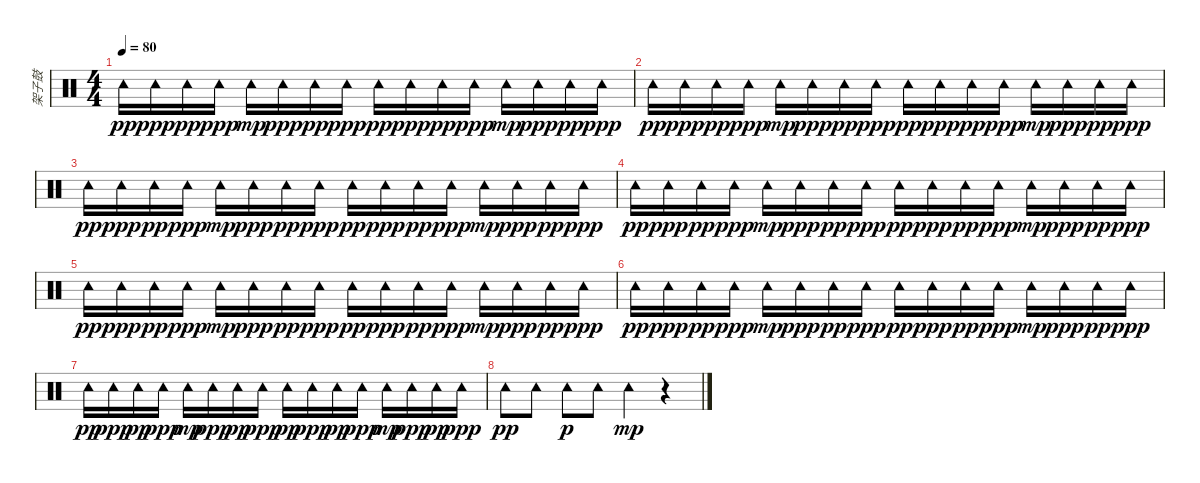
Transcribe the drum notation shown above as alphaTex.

\track ("架子鼓" "架子鼓") {instrument percussion}
\staff {score}
\articulation defaults
\ts (4 4)
\tempo 80
\clef neutral
\ks c "Tambourine (hit)".16{dy pp} "Tambourine (hit)".16{dy ppp} "Tambourine (hit)".16{dy pp} "Tambourine (hit)".16{dy ppp} "Tambourine (hit)".16{dy mp} "Tambourine (hit)".16{dy ppp} "Tambourine (hit)".16{dy pp} "Tambourine (hit)".16{dy ppp} "Tambourine (hit)".16{dy pp} "Tambourine (hit)".16{dy ppp} "Tambourine (hit)".16{dy pp} "Tambourine (hit)".16{dy ppp} "Tambourine (hit)".16{dy mp} "Tambourine (hit)".16{dy ppp} "Tambourine (hit)".16{dy pp} "Tambourine (hit)".16{dy ppp}
|
"Tambourine (hit)".16{dy pp} "Tambourine (hit)".16{dy ppp} "Tambourine (hit)".16{dy pp} "Tambourine (hit)".16{dy ppp} "Tambourine (hit)".16{dy mp} "Tambourine (hit)".16{dy ppp} "Tambourine (hit)".16{dy pp} "Tambourine (hit)".16{dy ppp} "Tambourine (hit)".16{dy pp} "Tambourine (hit)".16{dy ppp} "Tambourine (hit)".16{dy pp} "Tambourine (hit)".16{dy ppp} "Tambourine (hit)".16{dy mp} "Tambourine (hit)".16{dy ppp} "Tambourine (hit)".16{dy pp} "Tambourine (hit)".16{dy ppp} |
"Tambourine (hit)".16{dy pp} "Tambourine (hit)".16{dy ppp} "Tambourine (hit)".16{dy pp} "Tambourine (hit)".16{dy ppp} "Tambourine (hit)".16{dy mp} "Tambourine (hit)".16{dy ppp} "Tambourine (hit)".16{dy pp} "Tambourine (hit)".16{dy ppp} "Tambourine (hit)".16{dy pp} "Tambourine (hit)".16{dy ppp} "Tambourine (hit)".16{dy pp} "Tambourine (hit)".16{dy ppp} "Tambourine (hit)".16{dy mp} "Tambourine (hit)".16{dy ppp} "Tambourine (hit)".16{dy pp} "Tambourine (hit)".16{dy ppp} |
"Tambourine (hit)".16{dy pp} "Tambourine (hit)".16{dy ppp} "Tambourine (hit)".16{dy pp} "Tambourine (hit)".16{dy ppp} "Tambourine (hit)".16{dy mp} "Tambourine (hit)".16{dy ppp} "Tambourine (hit)".16{dy pp} "Tambourine (hit)".16{dy ppp} "Tambourine (hit)".16{dy pp} "Tambourine (hit)".16{dy ppp} "Tambourine (hit)".16{dy pp} "Tambourine (hit)".16{dy ppp} "Tambourine (hit)".16{dy mp} "Tambourine (hit)".16{dy ppp} "Tambourine (hit)".16{dy pp} "Tambourine (hit)".16{dy ppp} |
"Tambourine (hit)".16{dy pp} "Tambourine (hit)".16{dy ppp} "Tambourine (hit)".16{dy pp} "Tambourine (hit)".16{dy ppp} "Tambourine (hit)".16{dy mp} "Tambourine (hit)".16{dy ppp} "Tambourine (hit)".16{dy pp} "Tambourine (hit)".16{dy ppp} "Tambourine (hit)".16{dy pp} "Tambourine (hit)".16{dy ppp} "Tambourine (hit)".16{dy pp} "Tambourine (hit)".16{dy ppp} "Tambourine (hit)".16{dy mp} "Tambourine (hit)".16{dy ppp} "Tambourine (hit)".16{dy pp} "Tambourine (hit)".16{dy ppp} |
"Tambourine (hit)".16{dy pp} "Tambourine (hit)".16{dy ppp} "Tambourine (hit)".16{dy pp} "Tambourine (hit)".16{dy ppp} "Tambourine (hit)".16{dy mp} "Tambourine (hit)".16{dy ppp} "Tambourine (hit)".16{dy pp} "Tambourine (hit)".16{dy ppp} "Tambourine (hit)".16{dy pp} "Tambourine (hit)".16{dy ppp} "Tambourine (hit)".16{dy pp} "Tambourine (hit)".16{dy ppp} "Tambourine (hit)".16{dy mp} "Tambourine (hit)".16{dy ppp} "Tambourine (hit)".16{dy pp} "Tambourine (hit)".16{dy ppp} |
"Tambourine (hit)".16{dy pp} "Tambourine (hit)".16{dy ppp} "Tambourine (hit)".16{dy pp} "Tambourine (hit)".16{dy ppp} "Tambourine (hit)".16{dy mp} "Tambourine (hit)".16{dy ppp} "Tambourine (hit)".16{dy pp} "Tambourine (hit)".16{dy ppp} "Tambourine (hit)".16{dy pp} "Tambourine (hit)".16{dy ppp} "Tambourine (hit)".16{dy pp} "Tambourine (hit)".16{dy ppp} "Tambourine (hit)".16{dy mp} "Tambourine (hit)".16{dy ppp} "Tambourine (hit)".16{dy pp} "Tambourine (hit)".16{dy ppp} |
"Tambourine (hit)".8{dy pp} "Tambourine (hit)".8 "Tambourine (hit)".8{dy p} "Tambourine (hit)".8 "Tambourine (hit)".4{dy mp} r.4
